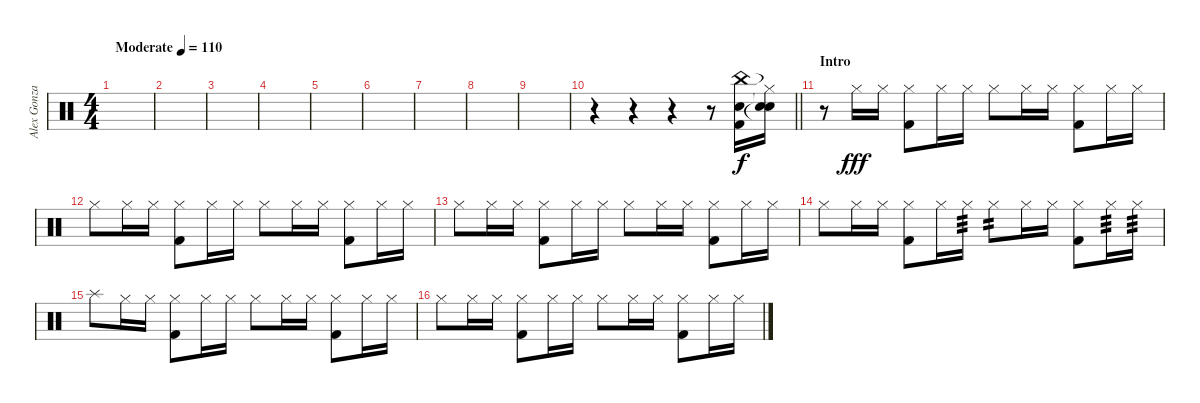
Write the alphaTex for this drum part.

\track ("Alex Gonzalez" "Alex Gonza") {instrument percussion}
\staff {score}
\articulation defaults
\ts (4 4)
\tempo (110 "Moderate")
\clef neutral
\ks c
|
|
|
|
|
|
|
|
|
\barLineRight lightlight
r.4 r.4 r.4 r.8 ("China (hit)" "Electric Snare (hit)" "Kick (hit) 2").16 ("Hi-Hat (closed)"{t} "Snare (hit)"{t} "Snare (hit)"{t}).16{dy f} |
\section ("" "Intro")
r.8 "Hi-Hat (closed)".16{dy fff} "Hi-Hat (closed)".16 ("Hi-Hat (closed)" "Kick (hit) 2").8 "Hi-Hat (closed)".16 "Hi-Hat (closed)".16 "Hi-Hat (closed)".8 "Hi-Hat (closed)".16 "Hi-Hat (closed)".16 ("Hi-Hat (closed)" "Kick (hit) 2").8 "Hi-Hat (closed)".16 "Hi-Hat (closed)".16 |
"Hi-Hat (closed)".8 "Hi-Hat (closed)".16 "Hi-Hat (closed)".16 ("Hi-Hat (closed)" "Kick (hit) 2").8 "Hi-Hat (closed)".16 "Hi-Hat (closed)".16 "Hi-Hat (closed)".8 "Hi-Hat (closed)".16 "Hi-Hat (closed)".16 ("Hi-Hat (closed)" "Kick (hit) 2").8 "Hi-Hat (closed)".16 "Hi-Hat (closed)".16 |
"Hi-Hat (closed)".8 "Hi-Hat (closed)".16 "Hi-Hat (closed)".16 ("Hi-Hat (closed)" "Kick (hit) 2").8 "Hi-Hat (closed)".16 "Hi-Hat (closed)".16 "Hi-Hat (closed)".8 "Hi-Hat (closed)".16 "Hi-Hat (closed)".16 ("Hi-Hat (closed)" "Kick (hit) 2").8 "Hi-Hat (closed)".16 "Hi-Hat (closed)".16 |
"Hi-Hat (closed)".8 "Hi-Hat (closed)".16 "Hi-Hat (closed)".16 ("Hi-Hat (closed)" "Kick (hit) 2").8 "Hi-Hat (closed)".16 "Hi-Hat (closed)".16{tp 3} "Hi-Hat (closed)".8{tp 2} "Hi-Hat (closed)".16 "Hi-Hat (closed)".16 ("Hi-Hat (closed)" "Kick (hit) 2").8 "Hi-Hat (closed)".16{tp 3} "Hi-Hat (closed)".16{tp 3} |
"Splash (hit)".8 "Hi-Hat (closed)".16 "Hi-Hat (closed)".16 ("Hi-Hat (closed)" "Kick (hit) 2").8 "Hi-Hat (closed)".16 "Hi-Hat (closed)".16 "Hi-Hat (closed)".8 "Hi-Hat (closed)".16 "Hi-Hat (closed)".16 ("Hi-Hat (closed)" "Kick (hit) 2").8 "Hi-Hat (closed)".16 "Hi-Hat (closed)".16 |
"Hi-Hat (closed)".8 "Hi-Hat (closed)".16 "Hi-Hat (closed)".16 ("Hi-Hat (closed)" "Kick (hit) 2").8 "Hi-Hat (closed)".16 "Hi-Hat (closed)".16 "Hi-Hat (closed)".8 "Hi-Hat (closed)".16 "Hi-Hat (closed)".16 ("Hi-Hat (closed)" "Kick (hit) 2").8 "Hi-Hat (closed)".16 "Hi-Hat (closed)".16
